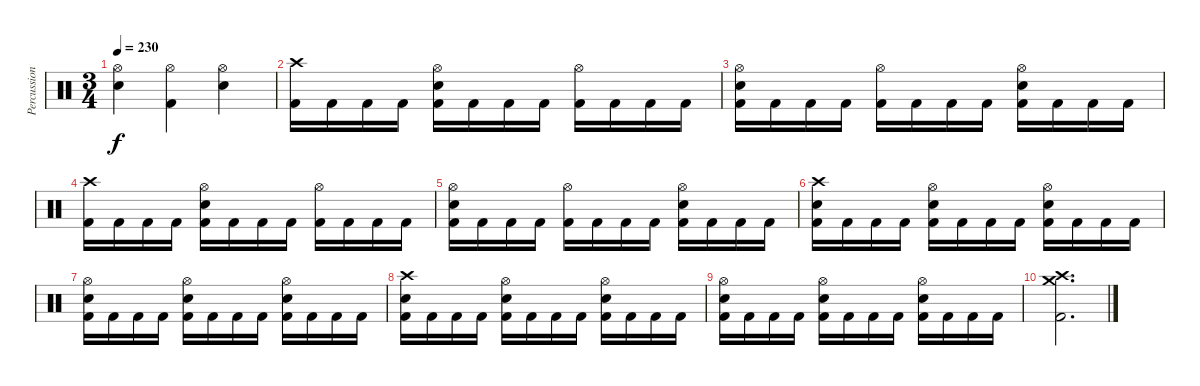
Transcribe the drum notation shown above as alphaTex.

\track ("Percussion" "Percussion") {instrument percussion}
\staff {score}
\articulation defaults
\ts (3 4)
\tempo 230
\clef neutral
\ks c
("Hi-Hat (open)" "Electric Snare (hit)").4{dy f} ("Hi-Hat (open)" "Kick (hit) 2").4 ("Hi-Hat (open)" "Electric Snare (hit)").4 |
("Crash high (hit)" "Kick (hit) 2").16 "Kick (hit) 2".16 "Kick (hit) 2".16 "Kick (hit) 2".16 ("Hi-Hat (open)" "Kick (hit) 2" "Electric Snare (hit)").16 "Kick (hit) 2".16 "Kick (hit) 2".16 "Kick (hit) 2".16 ("Hi-Hat (open)" "Kick (hit) 2").16 "Kick (hit) 2".16 "Kick (hit) 2".16 "Kick (hit) 2".16 |
("Hi-Hat (open)" "Kick (hit) 2" "Electric Snare (hit)").16 "Kick (hit) 2".16 "Kick (hit) 2".16 "Kick (hit) 2".16 ("Hi-Hat (open)" "Kick (hit) 2").16 "Kick (hit) 2".16 "Kick (hit) 2".16 "Kick (hit) 2".16 ("Hi-Hat (open)" "Kick (hit) 2" "Electric Snare (hit)").16 "Kick (hit) 2".16 "Kick (hit) 2".16 "Kick (hit) 2".16 |
("Crash high (hit)" "Kick (hit) 2").16 "Kick (hit) 2".16 "Kick (hit) 2".16 "Kick (hit) 2".16 ("Hi-Hat (open)" "Kick (hit) 2" "Electric Snare (hit)").16 "Kick (hit) 2".16 "Kick (hit) 2".16 "Kick (hit) 2".16 ("Hi-Hat (open)" "Kick (hit) 2").16 "Kick (hit) 2".16 "Kick (hit) 2".16 "Kick (hit) 2".16 |
("Hi-Hat (open)" "Kick (hit) 2" "Electric Snare (hit)").16 "Kick (hit) 2".16 "Kick (hit) 2".16 "Kick (hit) 2".16 ("Hi-Hat (open)" "Kick (hit) 2").16 "Kick (hit) 2".16 "Kick (hit) 2".16 "Kick (hit) 2".16 ("Hi-Hat (open)" "Kick (hit) 2" "Electric Snare (hit)").16 "Kick (hit) 2".16 "Kick (hit) 2".16 "Kick (hit) 2".16 |
("Crash high (hit)" "Kick (hit) 2" "Electric Snare (hit)").16 "Kick (hit) 2".16 "Kick (hit) 2".16 "Kick (hit) 2".16 ("Hi-Hat (open)" "Kick (hit) 2" "Electric Snare (hit)").16 "Kick (hit) 2".16 "Kick (hit) 2".16 "Kick (hit) 2".16 ("Hi-Hat (open)" "Kick (hit) 2" "Electric Snare (hit)").16 "Kick (hit) 2".16 "Kick (hit) 2".16 "Kick (hit) 2".16 |
("Hi-Hat (open)" "Kick (hit) 2" "Electric Snare (hit)").16 "Kick (hit) 2".16 "Kick (hit) 2".16 "Kick (hit) 2".16 ("Hi-Hat (open)" "Kick (hit) 2" "Electric Snare (hit)").16 "Kick (hit) 2".16 "Kick (hit) 2".16 "Kick (hit) 2".16 ("Hi-Hat (open)" "Kick (hit) 2" "Electric Snare (hit)").16 "Kick (hit) 2".16 "Kick (hit) 2".16 "Kick (hit) 2".16 |
("Crash high (hit)" "Kick (hit) 2" "Electric Snare (hit)").16 "Kick (hit) 2".16 "Kick (hit) 2".16 "Kick (hit) 2".16 ("Hi-Hat (open)" "Kick (hit) 2" "Electric Snare (hit)").16 "Kick (hit) 2".16 "Kick (hit) 2".16 "Kick (hit) 2".16 ("Hi-Hat (open)" "Kick (hit) 2" "Electric Snare (hit)").16 "Kick (hit) 2".16 "Kick (hit) 2".16 "Kick (hit) 2".16 |
("Hi-Hat (open)" "Kick (hit) 2" "Electric Snare (hit)").16 "Kick (hit) 2".16 "Kick (hit) 2".16 "Kick (hit) 2".16 ("Hi-Hat (open)" "Kick (hit) 2" "Electric Snare (hit)").16 "Kick (hit) 2".16 "Kick (hit) 2".16 "Kick (hit) 2".16 ("Hi-Hat (open)" "Kick (hit) 2" "Electric Snare (hit)").16 "Kick (hit) 2".16 "Kick (hit) 2".16 "Kick (hit) 2".16 |
("Crash medium (hit)" "Crash high (hit)" "Kick (hit) 2").2{d}
